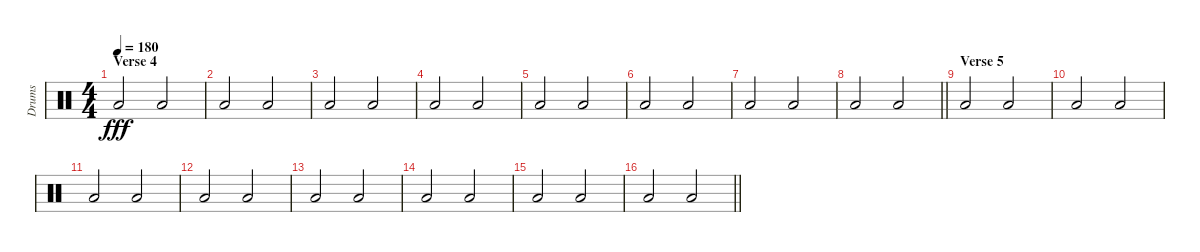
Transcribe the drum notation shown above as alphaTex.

\track ("Drums" "Drums") {instrument percussion}
\staff {score}
\articulation defaults
\ts (4 4)
\section ("" "Verse 4")
\tempo 180
\clef neutral
\ks c "Low Floor Tom (hit)".2{dy fff} "Low Floor Tom (hit)".2
|
"Low Floor Tom (hit)".2 "Low Floor Tom (hit)".2 |
"Low Floor Tom (hit)".2 "Low Floor Tom (hit)".2 |
"Low Floor Tom (hit)".2 "Low Floor Tom (hit)".2 |
"Low Floor Tom (hit)".2 "Low Floor Tom (hit)".2 |
"Low Floor Tom (hit)".2 "Low Floor Tom (hit)".2 |
"Low Floor Tom (hit)".2 "Low Floor Tom (hit)".2 |
\barLineRight lightlight "Low Floor Tom (hit)".2 "Low Floor Tom (hit)".2
|
\section ("" "Verse 5")
"Low Floor Tom (hit)".2 "Low Floor Tom (hit)".2 |
"Low Floor Tom (hit)".2 "Low Floor Tom (hit)".2 |
"Low Floor Tom (hit)".2 "Low Floor Tom (hit)".2 |
"Low Floor Tom (hit)".2 "Low Floor Tom (hit)".2 |
"Low Floor Tom (hit)".2 "Low Floor Tom (hit)".2 |
"Low Floor Tom (hit)".2 "Low Floor Tom (hit)".2 |
"Low Floor Tom (hit)".2 "Low Floor Tom (hit)".2 |
\barLineRight lightlight "Low Floor Tom (hit)".2 "Low Floor Tom (hit)".2
